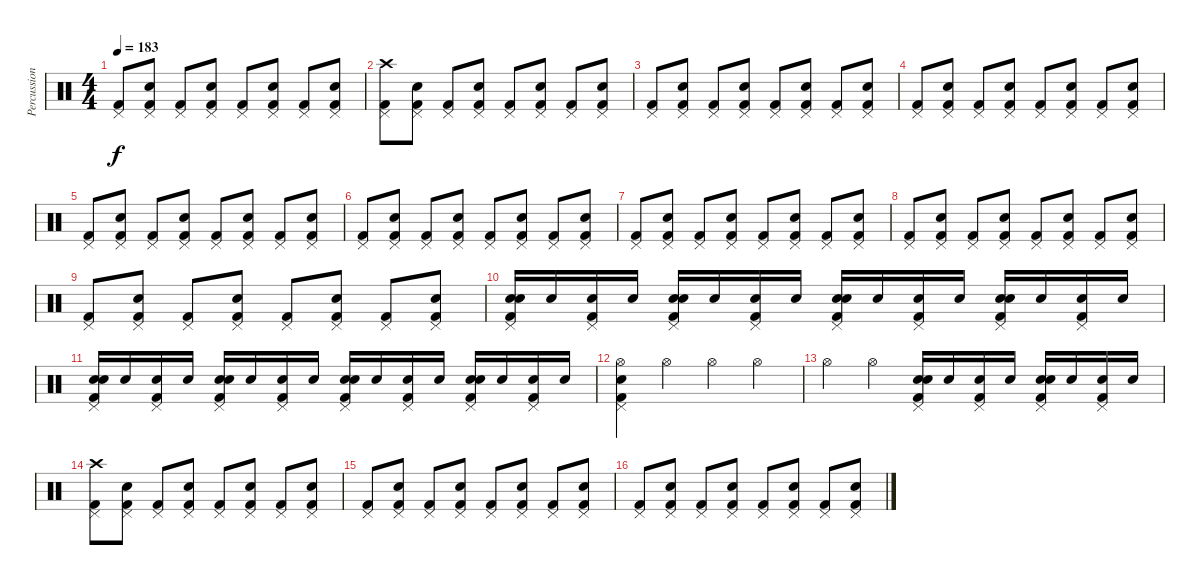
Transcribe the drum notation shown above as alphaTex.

\track ("Percussion" "Percussion") {instrument percussion}
\staff {score}
\articulation defaults
\ts (4 4)
\tempo 183
\clef neutral
\ks c
("Kick (hit) 2" "Pedal Hi-Hat (hit)").8{dy f} ("Kick (hit) 2" "Snare (hit) 2" "Pedal Hi-Hat (hit)").8 ("Kick (hit) 2" "Pedal Hi-Hat (hit)").8 ("Kick (hit) 2" "Snare (hit) 2" "Pedal Hi-Hat (hit)").8 ("Kick (hit) 2" "Pedal Hi-Hat (hit)").8 ("Kick (hit) 2" "Snare (hit) 2" "Pedal Hi-Hat (hit)").8 ("Kick (hit) 2" "Pedal Hi-Hat (hit)").8 ("Kick (hit) 2" "Snare (hit) 2" "Pedal Hi-Hat (hit)").8 |
("Kick (hit) 2" "Pedal Hi-Hat (hit)" "Crash high (hit)").8 ("Kick (hit) 2" "Snare (hit) 2" "Pedal Hi-Hat (hit)").8 ("Kick (hit) 2" "Pedal Hi-Hat (hit)").8 ("Kick (hit) 2" "Snare (hit) 2" "Pedal Hi-Hat (hit)").8 ("Kick (hit) 2" "Pedal Hi-Hat (hit)").8 ("Kick (hit) 2" "Snare (hit) 2" "Pedal Hi-Hat (hit)").8 ("Kick (hit) 2" "Pedal Hi-Hat (hit)").8 ("Kick (hit) 2" "Snare (hit) 2" "Pedal Hi-Hat (hit)").8 |
("Kick (hit) 2" "Pedal Hi-Hat (hit)").8 ("Kick (hit) 2" "Snare (hit) 2" "Pedal Hi-Hat (hit)").8 ("Kick (hit) 2" "Pedal Hi-Hat (hit)").8 ("Kick (hit) 2" "Snare (hit) 2" "Pedal Hi-Hat (hit)").8 ("Kick (hit) 2" "Pedal Hi-Hat (hit)").8 ("Kick (hit) 2" "Snare (hit) 2" "Pedal Hi-Hat (hit)").8 ("Kick (hit) 2" "Pedal Hi-Hat (hit)").8 ("Kick (hit) 2" "Snare (hit) 2" "Pedal Hi-Hat (hit)").8 |
("Kick (hit) 2" "Pedal Hi-Hat (hit)").8 ("Kick (hit) 2" "Snare (hit) 2" "Pedal Hi-Hat (hit)").8 ("Kick (hit) 2" "Pedal Hi-Hat (hit)").8 ("Kick (hit) 2" "Snare (hit) 2" "Pedal Hi-Hat (hit)").8 ("Kick (hit) 2" "Pedal Hi-Hat (hit)").8 ("Kick (hit) 2" "Snare (hit) 2" "Pedal Hi-Hat (hit)").8 ("Kick (hit) 2" "Pedal Hi-Hat (hit)").8 ("Kick (hit) 2" "Snare (hit) 2" "Pedal Hi-Hat (hit)").8 |
("Kick (hit) 2" "Pedal Hi-Hat (hit)").8 ("Kick (hit) 2" "Snare (hit) 2" "Pedal Hi-Hat (hit)").8 ("Kick (hit) 2" "Pedal Hi-Hat (hit)").8 ("Kick (hit) 2" "Snare (hit) 2" "Pedal Hi-Hat (hit)").8 ("Kick (hit) 2" "Pedal Hi-Hat (hit)").8 ("Kick (hit) 2" "Snare (hit) 2" "Pedal Hi-Hat (hit)").8 ("Kick (hit) 2" "Pedal Hi-Hat (hit)").8 ("Kick (hit) 2" "Snare (hit) 2" "Pedal Hi-Hat (hit)").8 |
("Kick (hit) 2" "Pedal Hi-Hat (hit)").8 ("Kick (hit) 2" "Snare (hit) 2" "Pedal Hi-Hat (hit)").8 ("Kick (hit) 2" "Pedal Hi-Hat (hit)").8 ("Kick (hit) 2" "Snare (hit) 2" "Pedal Hi-Hat (hit)").8 ("Kick (hit) 2" "Pedal Hi-Hat (hit)").8 ("Kick (hit) 2" "Snare (hit) 2" "Pedal Hi-Hat (hit)").8 ("Kick (hit) 2" "Pedal Hi-Hat (hit)").8 ("Kick (hit) 2" "Snare (hit) 2" "Pedal Hi-Hat (hit)").8 |
("Kick (hit) 2" "Pedal Hi-Hat (hit)").8 ("Kick (hit) 2" "Snare (hit) 2" "Pedal Hi-Hat (hit)").8 ("Kick (hit) 2" "Pedal Hi-Hat (hit)").8 ("Kick (hit) 2" "Snare (hit) 2" "Pedal Hi-Hat (hit)").8 ("Kick (hit) 2" "Pedal Hi-Hat (hit)").8 ("Kick (hit) 2" "Snare (hit) 2" "Pedal Hi-Hat (hit)").8 ("Kick (hit) 2" "Pedal Hi-Hat (hit)").8 ("Kick (hit) 2" "Snare (hit) 2" "Pedal Hi-Hat (hit)").8 |
("Kick (hit) 2" "Pedal Hi-Hat (hit)").8 ("Kick (hit) 2" "Snare (hit) 2" "Pedal Hi-Hat (hit)").8 ("Kick (hit) 2" "Pedal Hi-Hat (hit)").8 ("Kick (hit) 2" "Snare (hit) 2" "Pedal Hi-Hat (hit)").8 ("Kick (hit) 2" "Pedal Hi-Hat (hit)").8 ("Kick (hit) 2" "Snare (hit) 2" "Pedal Hi-Hat (hit)").8 ("Kick (hit) 2" "Pedal Hi-Hat (hit)").8 ("Kick (hit) 2" "Snare (hit) 2" "Pedal Hi-Hat (hit)").8 |
("Kick (hit) 2" "Pedal Hi-Hat (hit)").8 ("Kick (hit) 2" "Snare (hit) 2" "Pedal Hi-Hat (hit)").8 ("Kick (hit) 2" "Pedal Hi-Hat (hit)").8 ("Kick (hit) 2" "Snare (hit) 2" "Pedal Hi-Hat (hit)").8 ("Kick (hit) 2" "Pedal Hi-Hat (hit)").8 ("Kick (hit) 2" "Snare (hit) 2" "Pedal Hi-Hat (hit)").8 ("Kick (hit) 2" "Pedal Hi-Hat (hit)").8 ("Kick (hit) 2" "Snare (hit) 2" "Pedal Hi-Hat (hit)").8 |
("Pedal Hi-Hat (hit)" "Snare (hit) 2" "Snare (hit) 2" "Kick (hit) 2").16 "Snare (hit) 2".16 ("Pedal Hi-Hat (hit)" "Snare (hit) 2" "Kick (hit) 2").16 "Snare (hit) 2".16 ("Pedal Hi-Hat (hit)" "Snare (hit) 2" "Snare (hit) 2" "Kick (hit) 2").16 "Snare (hit) 2".16 ("Pedal Hi-Hat (hit)" "Snare (hit) 2" "Kick (hit) 2").16 "Snare (hit) 2".16 ("Pedal Hi-Hat (hit)" "Snare (hit) 2" "Snare (hit) 2" "Kick (hit) 2").16 "Snare (hit) 2".16 ("Pedal Hi-Hat (hit)" "Snare (hit) 2" "Kick (hit) 2").16 "Snare (hit) 2".16 ("Pedal Hi-Hat (hit)" "Snare (hit) 2" "Snare (hit) 2" "Kick (hit) 2").16 "Snare (hit) 2".16 ("Pedal Hi-Hat (hit)" "Snare (hit) 2" "Kick (hit) 2").16 "Snare (hit) 2".16 |
("Pedal Hi-Hat (hit)" "Snare (hit) 2" "Snare (hit) 2" "Kick (hit) 2").16 "Snare (hit) 2".16 ("Pedal Hi-Hat (hit)" "Snare (hit) 2" "Kick (hit) 2").16 "Snare (hit) 2".16 ("Pedal Hi-Hat (hit)" "Snare (hit) 2" "Snare (hit) 2" "Kick (hit) 2").16 "Snare (hit) 2".16 ("Pedal Hi-Hat (hit)" "Snare (hit) 2" "Kick (hit) 2").16 "Snare (hit) 2".16 ("Pedal Hi-Hat (hit)" "Snare (hit) 2" "Snare (hit) 2" "Kick (hit) 2").16 "Snare (hit) 2".16 ("Pedal Hi-Hat (hit)" "Snare (hit) 2" "Kick (hit) 2").16 "Snare (hit) 2".16 ("Pedal Hi-Hat (hit)" "Snare (hit) 2" "Snare (hit) 2" "Kick (hit) 2").16 "Snare (hit) 2".16 ("Pedal Hi-Hat (hit)" "Snare (hit) 2" "Kick (hit) 2").16 "Snare (hit) 2".16 |
("Pedal Hi-Hat (hit)" "Snare (hit) 2" "Kick (hit) 2" "Hi-Hat (open)").4 "Hi-Hat (open)".4 "Hi-Hat (open)".4 "Hi-Hat (open)".4 |
"Hi-Hat (open)".4 "Hi-Hat (open)".4 ("Pedal Hi-Hat (hit)" "Snare (hit) 2" "Snare (hit) 2" "Kick (hit) 2").16 "Snare (hit) 2".16 ("Pedal Hi-Hat (hit)" "Snare (hit) 2" "Kick (hit) 2").16 "Snare (hit) 2".16 ("Pedal Hi-Hat (hit)" "Snare (hit) 2" "Snare (hit) 2" "Kick (hit) 2").16 "Snare (hit) 2".16 ("Pedal Hi-Hat (hit)" "Snare (hit) 2" "Kick (hit) 2").16 "Snare (hit) 2".16 |
("Kick (hit) 2" "Pedal Hi-Hat (hit)" "Crash high (hit)").8 ("Kick (hit) 2" "Snare (hit) 2" "Pedal Hi-Hat (hit)").8 ("Kick (hit) 2" "Pedal Hi-Hat (hit)").8 ("Kick (hit) 2" "Snare (hit) 2" "Pedal Hi-Hat (hit)").8 ("Kick (hit) 2" "Pedal Hi-Hat (hit)").8 ("Kick (hit) 2" "Snare (hit) 2" "Pedal Hi-Hat (hit)").8 ("Kick (hit) 2" "Pedal Hi-Hat (hit)").8 ("Kick (hit) 2" "Snare (hit) 2" "Pedal Hi-Hat (hit)").8 |
("Kick (hit) 2" "Pedal Hi-Hat (hit)").8 ("Kick (hit) 2" "Snare (hit) 2" "Pedal Hi-Hat (hit)").8 ("Kick (hit) 2" "Pedal Hi-Hat (hit)").8 ("Kick (hit) 2" "Snare (hit) 2" "Pedal Hi-Hat (hit)").8 ("Kick (hit) 2" "Pedal Hi-Hat (hit)").8 ("Kick (hit) 2" "Snare (hit) 2" "Pedal Hi-Hat (hit)").8 ("Kick (hit) 2" "Pedal Hi-Hat (hit)").8 ("Kick (hit) 2" "Snare (hit) 2" "Pedal Hi-Hat (hit)").8 |
("Kick (hit) 2" "Pedal Hi-Hat (hit)").8 ("Kick (hit) 2" "Snare (hit) 2" "Pedal Hi-Hat (hit)").8 ("Kick (hit) 2" "Pedal Hi-Hat (hit)").8 ("Kick (hit) 2" "Snare (hit) 2" "Pedal Hi-Hat (hit)").8 ("Kick (hit) 2" "Pedal Hi-Hat (hit)").8 ("Kick (hit) 2" "Snare (hit) 2" "Pedal Hi-Hat (hit)").8 ("Kick (hit) 2" "Pedal Hi-Hat (hit)").8 ("Kick (hit) 2" "Snare (hit) 2" "Pedal Hi-Hat (hit)").8
